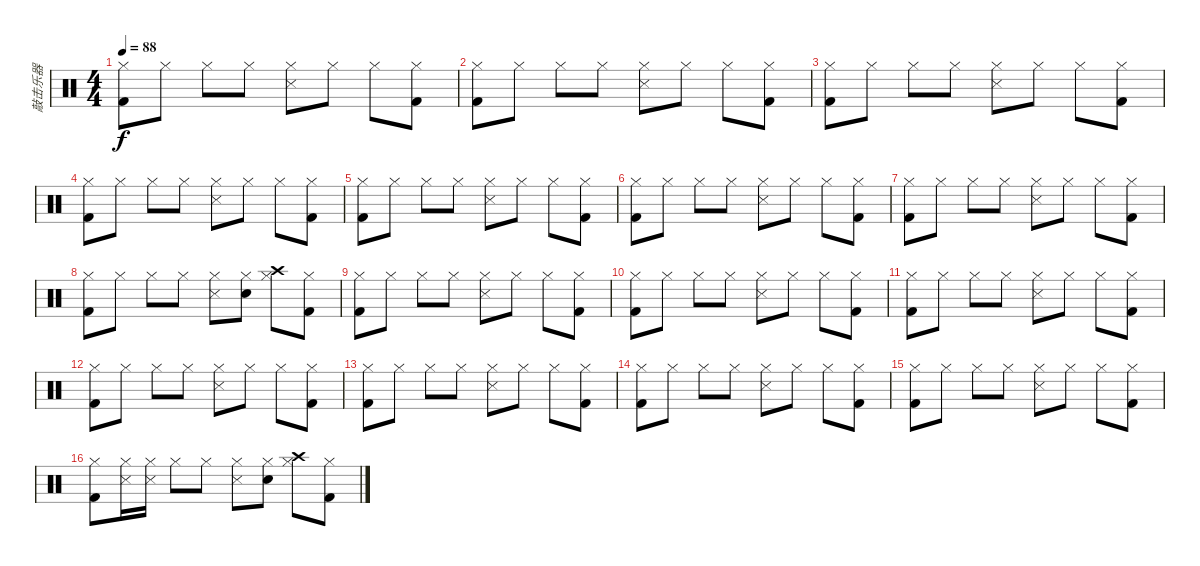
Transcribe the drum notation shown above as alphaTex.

\track ("敲击乐器" "敲击乐器") {instrument percussion}
\staff {score}
\articulation defaults
\ts (4 4)
\tempo 88
\clef neutral
\ks c
("Kick (hit) 2" "Hi-Hat (closed)").8{dy f} "Hi-Hat (closed)".8 "Hi-Hat (closed)".8 "Hi-Hat (closed)".8 ("Snare (side stick) 3" "Hi-Hat (closed)").8 "Hi-Hat (closed)".8 "Hi-Hat (closed)".8 ("Kick (hit) 2" "Hi-Hat (closed)").8 |
("Kick (hit) 2" "Hi-Hat (closed)").8 "Hi-Hat (closed)".8 "Hi-Hat (closed)".8 "Hi-Hat (closed)".8 ("Snare (side stick) 3" "Hi-Hat (closed)").8 "Hi-Hat (closed)".8 "Hi-Hat (closed)".8 ("Kick (hit) 2" "Hi-Hat (closed)").8 |
("Kick (hit) 2" "Hi-Hat (closed)").8 "Hi-Hat (closed)".8 "Hi-Hat (closed)".8 "Hi-Hat (closed)".8 ("Snare (side stick) 3" "Hi-Hat (closed)").8 "Hi-Hat (closed)".8 "Hi-Hat (closed)".8 ("Kick (hit) 2" "Hi-Hat (closed)").8 |
("Kick (hit) 2" "Hi-Hat (closed)").8 "Hi-Hat (closed)".8 "Hi-Hat (closed)".8 "Hi-Hat (closed)".8 ("Snare (side stick) 3" "Hi-Hat (closed)").8 "Hi-Hat (closed)".8 "Hi-Hat (closed)".8 ("Kick (hit) 2" "Hi-Hat (closed)").8 |
("Kick (hit) 2" "Hi-Hat (closed)").8 "Hi-Hat (closed)".8 "Hi-Hat (closed)".8 "Hi-Hat (closed)".8 ("Snare (side stick) 3" "Hi-Hat (closed)").8 "Hi-Hat (closed)".8 "Hi-Hat (closed)".8 ("Kick (hit) 2" "Hi-Hat (closed)").8 |
("Kick (hit) 2" "Hi-Hat (closed)").8 "Hi-Hat (closed)".8 "Hi-Hat (closed)".8 "Hi-Hat (closed)".8 ("Snare (side stick) 3" "Hi-Hat (closed)").8 "Hi-Hat (closed)".8 "Hi-Hat (closed)".8 ("Kick (hit) 2" "Hi-Hat (closed)").8 |
("Kick (hit) 2" "Hi-Hat (closed)").8 "Hi-Hat (closed)".8 "Hi-Hat (closed)".8 "Hi-Hat (closed)".8 ("Snare (side stick) 3" "Hi-Hat (closed)").8 "Hi-Hat (closed)".8 "Hi-Hat (closed)".8 ("Kick (hit) 2" "Hi-Hat (closed)").8 |
("Kick (hit) 2" "Hi-Hat (closed)").8 "Hi-Hat (closed)".8 "Hi-Hat (closed)".8 "Hi-Hat (closed)".8 ("Snare (side stick) 3" "Hi-Hat (closed)").8 ("Snare (hit) 2" "Hi-Hat (closed)").8 ("Crash high (hit)" "Hi-Hat (closed)").8 ("Kick (hit) 2" "Hi-Hat (closed)").8 |
("Kick (hit) 2" "Hi-Hat (closed)").8 "Hi-Hat (closed)".8 "Hi-Hat (closed)".8 "Hi-Hat (closed)".8 ("Snare (side stick) 3" "Hi-Hat (closed)").8 "Hi-Hat (closed)".8 "Hi-Hat (closed)".8 ("Kick (hit) 2" "Hi-Hat (closed)").8 |
("Kick (hit) 2" "Hi-Hat (closed)").8 "Hi-Hat (closed)".8 "Hi-Hat (closed)".8 "Hi-Hat (closed)".8 ("Snare (side stick) 3" "Hi-Hat (closed)").8 "Hi-Hat (closed)".8 "Hi-Hat (closed)".8 ("Kick (hit) 2" "Hi-Hat (closed)").8 |
("Kick (hit) 2" "Hi-Hat (closed)").8 "Hi-Hat (closed)".8 "Hi-Hat (closed)".8 "Hi-Hat (closed)".8 ("Snare (side stick) 3" "Hi-Hat (closed)").8 "Hi-Hat (closed)".8 "Hi-Hat (closed)".8 ("Kick (hit) 2" "Hi-Hat (closed)").8 |
("Kick (hit) 2" "Hi-Hat (closed)").8 "Hi-Hat (closed)".8 "Hi-Hat (closed)".8 "Hi-Hat (closed)".8 ("Snare (side stick) 3" "Hi-Hat (closed)").8 "Hi-Hat (closed)".8 "Hi-Hat (closed)".8 ("Kick (hit) 2" "Hi-Hat (closed)").8 |
("Kick (hit) 2" "Hi-Hat (closed)").8 "Hi-Hat (closed)".8 "Hi-Hat (closed)".8 "Hi-Hat (closed)".8 ("Snare (side stick) 3" "Hi-Hat (closed)").8 "Hi-Hat (closed)".8 "Hi-Hat (closed)".8 ("Kick (hit) 2" "Hi-Hat (closed)").8 |
("Kick (hit) 2" "Hi-Hat (closed)").8 "Hi-Hat (closed)".8 "Hi-Hat (closed)".8 "Hi-Hat (closed)".8 ("Snare (side stick) 3" "Hi-Hat (closed)").8 "Hi-Hat (closed)".8 "Hi-Hat (closed)".8 ("Kick (hit) 2" "Hi-Hat (closed)").8 |
("Kick (hit) 2" "Hi-Hat (closed)").8 "Hi-Hat (closed)".8 "Hi-Hat (closed)".8 "Hi-Hat (closed)".8 ("Snare (side stick) 3" "Hi-Hat (closed)").8 "Hi-Hat (closed)".8 "Hi-Hat (closed)".8 ("Kick (hit) 2" "Hi-Hat (closed)").8 |
("Kick (hit) 2" "Hi-Hat (closed)").8 ("Snare (side stick) 3" "Hi-Hat (closed)").16 ("Snare (side stick) 3" "Hi-Hat (closed)").16 "Hi-Hat (closed)".8 "Hi-Hat (closed)".8 ("Snare (side stick) 3" "Hi-Hat (closed)").8 ("Snare (hit) 2" "Hi-Hat (closed)").8 ("Crash high (hit)" "Hi-Hat (closed)").8 ("Kick (hit) 2" "Hi-Hat (closed)").8
